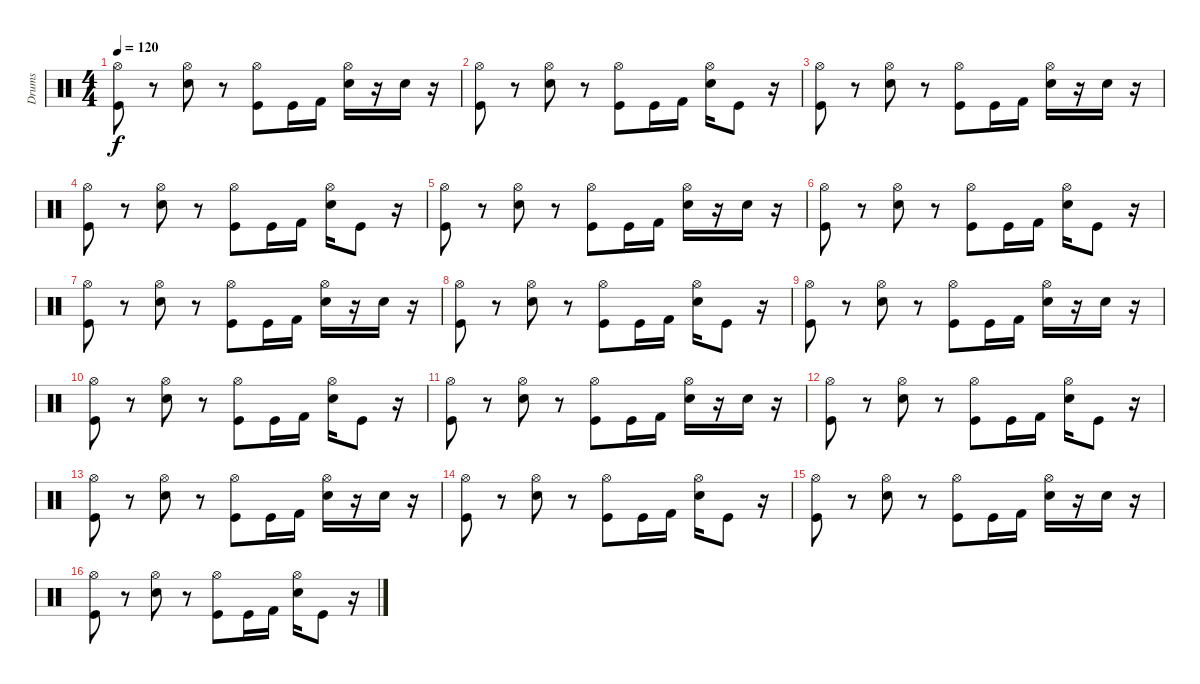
\track ("Drums" "Drums") {instrument percussion}
\staff {score}
\articulation defaults
\ts (4 4)
\tempo 120
\clef neutral
\ks c
("Hi-Hat (open)" "Kick (hit)").8{dy f} r.8 ("Hi-Hat (open)" "Snare (hit) 2").8 r.8 ("Hi-Hat (open)" "Kick (hit)").8 "Kick (hit)".16 "Kick (hit) 2".16 ("Hi-Hat (open)" "Snare (hit) 2").16 r.16 "Snare (hit) 2".16 r.16 |
("Hi-Hat (open)" "Kick (hit)").8 r.8 ("Hi-Hat (open)" "Snare (hit) 2").8 r.8 ("Hi-Hat (open)" "Kick (hit)").8 "Kick (hit)".16 "Kick (hit) 2".16 ("Hi-Hat (open)" "Snare (hit) 2").16 "Kick (hit)".8 r.16 |
("Hi-Hat (open)" "Kick (hit)").8 r.8 ("Hi-Hat (open)" "Snare (hit) 2").8 r.8 ("Hi-Hat (open)" "Kick (hit)").8 "Kick (hit)".16 "Kick (hit) 2".16 ("Hi-Hat (open)" "Snare (hit) 2").16 r.16 "Snare (hit) 2".16 r.16 |
("Hi-Hat (open)" "Kick (hit)").8 r.8 ("Hi-Hat (open)" "Snare (hit) 2").8 r.8 ("Hi-Hat (open)" "Kick (hit)").8 "Kick (hit)".16 "Kick (hit) 2".16 ("Hi-Hat (open)" "Snare (hit) 2").16 "Kick (hit)".8 r.16 |
("Hi-Hat (open)" "Kick (hit)").8 r.8 ("Hi-Hat (open)" "Snare (hit) 2").8 r.8 ("Hi-Hat (open)" "Kick (hit)").8 "Kick (hit)".16 "Kick (hit) 2".16 ("Hi-Hat (open)" "Snare (hit) 2").16 r.16 "Snare (hit) 2".16 r.16 |
("Hi-Hat (open)" "Kick (hit)").8 r.8 ("Hi-Hat (open)" "Snare (hit) 2").8 r.8 ("Hi-Hat (open)" "Kick (hit)").8 "Kick (hit)".16 "Kick (hit) 2".16 ("Hi-Hat (open)" "Snare (hit) 2").16 "Kick (hit)".8 r.16 |
("Hi-Hat (open)" "Kick (hit)").8 r.8 ("Hi-Hat (open)" "Snare (hit) 2").8 r.8 ("Hi-Hat (open)" "Kick (hit)").8 "Kick (hit)".16 "Kick (hit) 2".16 ("Hi-Hat (open)" "Snare (hit) 2").16 r.16 "Snare (hit) 2".16 r.16 |
("Hi-Hat (open)" "Kick (hit)").8 r.8 ("Hi-Hat (open)" "Snare (hit) 2").8 r.8 ("Hi-Hat (open)" "Kick (hit)").8 "Kick (hit)".16 "Kick (hit) 2".16 ("Hi-Hat (open)" "Snare (hit) 2").16 "Kick (hit)".8 r.16 |
("Hi-Hat (open)" "Kick (hit)").8 r.8 ("Hi-Hat (open)" "Snare (hit) 2").8 r.8 ("Hi-Hat (open)" "Kick (hit)").8 "Kick (hit)".16 "Kick (hit) 2".16 ("Hi-Hat (open)" "Snare (hit) 2").16 r.16 "Snare (hit) 2".16 r.16 |
("Hi-Hat (open)" "Kick (hit)").8 r.8 ("Hi-Hat (open)" "Snare (hit) 2").8 r.8 ("Hi-Hat (open)" "Kick (hit)").8 "Kick (hit)".16 "Kick (hit) 2".16 ("Hi-Hat (open)" "Snare (hit) 2").16 "Kick (hit)".8 r.16 |
("Hi-Hat (open)" "Kick (hit)").8 r.8 ("Hi-Hat (open)" "Snare (hit) 2").8 r.8 ("Hi-Hat (open)" "Kick (hit)").8 "Kick (hit)".16 "Kick (hit) 2".16 ("Hi-Hat (open)" "Snare (hit) 2").16 r.16 "Snare (hit) 2".16 r.16 |
("Hi-Hat (open)" "Kick (hit)").8 r.8 ("Hi-Hat (open)" "Snare (hit) 2").8 r.8 ("Hi-Hat (open)" "Kick (hit)").8 "Kick (hit)".16 "Kick (hit) 2".16 ("Hi-Hat (open)" "Snare (hit) 2").16 "Kick (hit)".8 r.16 |
("Hi-Hat (open)" "Kick (hit)").8 r.8 ("Hi-Hat (open)" "Snare (hit) 2").8 r.8 ("Hi-Hat (open)" "Kick (hit)").8 "Kick (hit)".16 "Kick (hit) 2".16 ("Hi-Hat (open)" "Snare (hit) 2").16 r.16 "Snare (hit) 2".16 r.16 |
("Hi-Hat (open)" "Kick (hit)").8 r.8 ("Hi-Hat (open)" "Snare (hit) 2").8 r.8 ("Hi-Hat (open)" "Kick (hit)").8 "Kick (hit)".16 "Kick (hit) 2".16 ("Hi-Hat (open)" "Snare (hit) 2").16 "Kick (hit)".8 r.16 |
("Hi-Hat (open)" "Kick (hit)").8 r.8 ("Hi-Hat (open)" "Snare (hit) 2").8 r.8 ("Hi-Hat (open)" "Kick (hit)").8 "Kick (hit)".16 "Kick (hit) 2".16 ("Hi-Hat (open)" "Snare (hit) 2").16 r.16 "Snare (hit) 2".16 r.16 |
("Hi-Hat (open)" "Kick (hit)").8 r.8 ("Hi-Hat (open)" "Snare (hit) 2").8 r.8 ("Hi-Hat (open)" "Kick (hit)").8 "Kick (hit)".16 "Kick (hit) 2".16 ("Hi-Hat (open)" "Snare (hit) 2").16 "Kick (hit)".8 r.16
